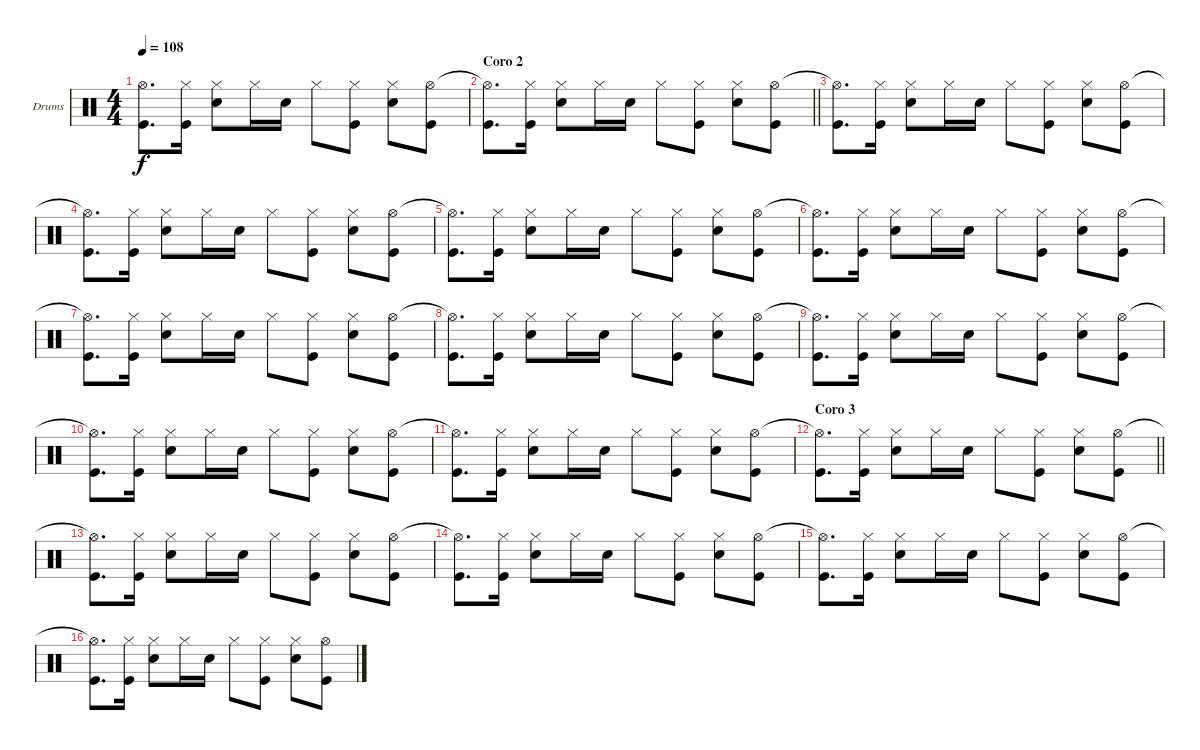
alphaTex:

\bracketExtendMode groupsimilarinstruments
\firstSystemTrackNameOrientation horizontal
\otherSystemsTrackNameOrientation horizontal
\track ("Drumkit" "Drums") {instrument percussion}
\staff {score}
\articulation defaults
\ts (4 4)
\tempo 108
\clef neutral
\ks c
("Hi-Hat (open)"{t} "Kick (hit)").8{d dy f} ("Hi-Hat (closed)" "Kick (hit)").16 ("Hi-Hat (closed)" "Snare (hit) 2").8 "Hi-Hat (closed)".16 "Snare (hit) 2".16 "Hi-Hat (closed)".8 ("Hi-Hat (closed)" "Kick (hit)").8 ("Hi-Hat (closed)" "Snare (hit) 2").8 ("Hi-Hat (open)" "Kick (hit)").8 |
\section ("" "Coro 2")
\barLineRight lightlight
("Hi-Hat (open)"{t} "Kick (hit)").8{d} ("Hi-Hat (closed)" "Kick (hit)").16 ("Hi-Hat (closed)" "Snare (hit) 2").8 "Hi-Hat (closed)".16 "Snare (hit) 2".16 "Hi-Hat (closed)".8 ("Hi-Hat (closed)" "Kick (hit)").8 ("Hi-Hat (closed)" "Snare (hit) 2").8 ("Hi-Hat (open)" "Kick (hit)").8 |
("Hi-Hat (open)"{t} "Kick (hit)").8{d} ("Hi-Hat (closed)" "Kick (hit)").16 ("Hi-Hat (closed)" "Snare (hit) 2").8 "Hi-Hat (closed)".16 "Snare (hit) 2".16 "Hi-Hat (closed)".8 ("Hi-Hat (closed)" "Kick (hit)").8 ("Hi-Hat (closed)" "Snare (hit) 2").8 ("Hi-Hat (open)" "Kick (hit)").8 |
("Hi-Hat (open)"{t} "Kick (hit)").8{d} ("Hi-Hat (closed)" "Kick (hit)").16 ("Hi-Hat (closed)" "Snare (hit) 2").8 "Hi-Hat (closed)".16 "Snare (hit) 2".16 "Hi-Hat (closed)".8 ("Hi-Hat (closed)" "Kick (hit)").8 ("Hi-Hat (closed)" "Snare (hit) 2").8 ("Hi-Hat (open)" "Kick (hit)").8 |
("Hi-Hat (open)"{t} "Kick (hit)").8{d} ("Hi-Hat (closed)" "Kick (hit)").16 ("Hi-Hat (closed)" "Snare (hit) 2").8 "Hi-Hat (closed)".16 "Snare (hit) 2".16 "Hi-Hat (closed)".8 ("Hi-Hat (closed)" "Kick (hit)").8 ("Hi-Hat (closed)" "Snare (hit) 2").8 ("Hi-Hat (open)" "Kick (hit)").8 |
("Hi-Hat (open)"{t} "Kick (hit)").8{d} ("Hi-Hat (closed)" "Kick (hit)").16 ("Hi-Hat (closed)" "Snare (hit) 2").8 "Hi-Hat (closed)".16 "Snare (hit) 2".16 "Hi-Hat (closed)".8 ("Hi-Hat (closed)" "Kick (hit)").8 ("Hi-Hat (closed)" "Snare (hit) 2").8 ("Hi-Hat (open)" "Kick (hit)").8 |
("Hi-Hat (open)"{t} "Kick (hit)").8{d} ("Hi-Hat (closed)" "Kick (hit)").16 ("Hi-Hat (closed)" "Snare (hit) 2").8 "Hi-Hat (closed)".16 "Snare (hit) 2".16 "Hi-Hat (closed)".8 ("Hi-Hat (closed)" "Kick (hit)").8 ("Hi-Hat (closed)" "Snare (hit) 2").8 ("Hi-Hat (open)" "Kick (hit)").8 |
("Hi-Hat (open)"{t} "Kick (hit)").8{d} ("Hi-Hat (closed)" "Kick (hit)").16 ("Hi-Hat (closed)" "Snare (hit) 2").8 "Hi-Hat (closed)".16 "Snare (hit) 2".16 "Hi-Hat (closed)".8 ("Hi-Hat (closed)" "Kick (hit)").8 ("Hi-Hat (closed)" "Snare (hit) 2").8 ("Hi-Hat (open)" "Kick (hit)").8 |
("Hi-Hat (open)"{t} "Kick (hit)").8{d} ("Hi-Hat (closed)" "Kick (hit)").16 ("Hi-Hat (closed)" "Snare (hit) 2").8 "Hi-Hat (closed)".16 "Snare (hit) 2".16 "Hi-Hat (closed)".8 ("Hi-Hat (closed)" "Kick (hit)").8 ("Hi-Hat (closed)" "Snare (hit) 2").8 ("Hi-Hat (open)" "Kick (hit)").8 |
("Hi-Hat (open)"{t} "Kick (hit)").8{d} ("Hi-Hat (closed)" "Kick (hit)").16 ("Hi-Hat (closed)" "Snare (hit) 2").8 "Hi-Hat (closed)".16 "Snare (hit) 2".16 "Hi-Hat (closed)".8 ("Hi-Hat (closed)" "Kick (hit)").8 ("Hi-Hat (closed)" "Snare (hit) 2").8 ("Hi-Hat (open)" "Kick (hit)").8 |
("Hi-Hat (open)"{t} "Kick (hit)").8{d} ("Hi-Hat (closed)" "Kick (hit)").16 ("Hi-Hat (closed)" "Snare (hit) 2").8 "Hi-Hat (closed)".16 "Snare (hit) 2".16 "Hi-Hat (closed)".8 ("Hi-Hat (closed)" "Kick (hit)").8 ("Hi-Hat (closed)" "Snare (hit) 2").8 ("Hi-Hat (open)" "Kick (hit)").8 |
\section ("" "Coro 3")
\barLineRight lightlight
("Hi-Hat (open)"{t} "Kick (hit)").8{d} ("Hi-Hat (closed)" "Kick (hit)").16 ("Hi-Hat (closed)" "Snare (hit) 2").8 "Hi-Hat (closed)".16 "Snare (hit) 2".16 "Hi-Hat (closed)".8 ("Hi-Hat (closed)" "Kick (hit)").8 ("Hi-Hat (closed)" "Snare (hit) 2").8 ("Hi-Hat (open)" "Kick (hit)").8 |
("Hi-Hat (open)"{t} "Kick (hit)").8{d} ("Hi-Hat (closed)" "Kick (hit)").16 ("Hi-Hat (closed)" "Snare (hit) 2").8 "Hi-Hat (closed)".16 "Snare (hit) 2".16 "Hi-Hat (closed)".8 ("Hi-Hat (closed)" "Kick (hit)").8 ("Hi-Hat (closed)" "Snare (hit) 2").8 ("Hi-Hat (open)" "Kick (hit)").8 |
("Hi-Hat (open)"{t} "Kick (hit)").8{d} ("Hi-Hat (closed)" "Kick (hit)").16 ("Hi-Hat (closed)" "Snare (hit) 2").8 "Hi-Hat (closed)".16 "Snare (hit) 2".16 "Hi-Hat (closed)".8 ("Hi-Hat (closed)" "Kick (hit)").8 ("Hi-Hat (closed)" "Snare (hit) 2").8 ("Hi-Hat (open)" "Kick (hit)").8 |
("Hi-Hat (open)"{t} "Kick (hit)").8{d} ("Hi-Hat (closed)" "Kick (hit)").16 ("Hi-Hat (closed)" "Snare (hit) 2").8 "Hi-Hat (closed)".16 "Snare (hit) 2".16 "Hi-Hat (closed)".8 ("Hi-Hat (closed)" "Kick (hit)").8 ("Hi-Hat (closed)" "Snare (hit) 2").8 ("Hi-Hat (open)" "Kick (hit)").8 |
("Hi-Hat (open)"{t} "Kick (hit)").8{d} ("Hi-Hat (closed)" "Kick (hit)").16 ("Hi-Hat (closed)" "Snare (hit) 2").8 "Hi-Hat (closed)".16 "Snare (hit) 2".16 "Hi-Hat (closed)".8 ("Hi-Hat (closed)" "Kick (hit)").8 ("Hi-Hat (closed)" "Snare (hit) 2").8 ("Hi-Hat (open)" "Kick (hit)").8
